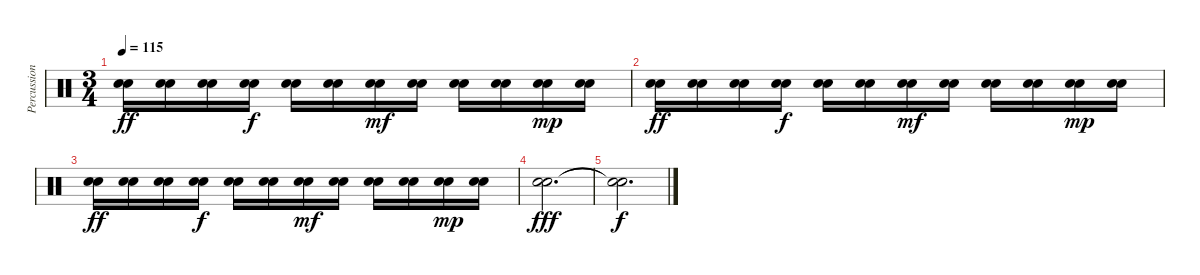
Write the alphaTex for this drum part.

\track ("Percussion 2" "Percussion") {instrument percussion}
\staff {score}
\articulation defaults
\ts (3 4)
\tempo 115
\clef neutral
\ks c
("Electric Snare (hit)" "Electric Snare (hit)").16{dy ff} ("Electric Snare (hit)" "Electric Snare (hit)").16 ("Electric Snare (hit)" "Electric Snare (hit)").16 ("Electric Snare (hit)" "Electric Snare (hit)").16{dy f} ("Electric Snare (hit)" "Electric Snare (hit)").16 ("Electric Snare (hit)" "Electric Snare (hit)").16 ("Electric Snare (hit)" "Electric Snare (hit)").16{dy mf} ("Electric Snare (hit)" "Electric Snare (hit)").16 ("Electric Snare (hit)" "Electric Snare (hit)").16 ("Electric Snare (hit)" "Electric Snare (hit)").16 ("Electric Snare (hit)" "Electric Snare (hit)").16{dy mp} ("Electric Snare (hit)" "Electric Snare (hit)").16 |
("Electric Snare (hit)" "Electric Snare (hit)").16{dy ff} ("Electric Snare (hit)" "Electric Snare (hit)").16 ("Electric Snare (hit)" "Electric Snare (hit)").16 ("Electric Snare (hit)" "Electric Snare (hit)").16{dy f} ("Electric Snare (hit)" "Electric Snare (hit)").16 ("Electric Snare (hit)" "Electric Snare (hit)").16 ("Electric Snare (hit)" "Electric Snare (hit)").16{dy mf} ("Electric Snare (hit)" "Electric Snare (hit)").16 ("Electric Snare (hit)" "Electric Snare (hit)").16 ("Electric Snare (hit)" "Electric Snare (hit)").16 ("Electric Snare (hit)" "Electric Snare (hit)").16{dy mp} ("Electric Snare (hit)" "Electric Snare (hit)").16 |
("Electric Snare (hit)" "Electric Snare (hit)").16{dy ff} ("Electric Snare (hit)" "Electric Snare (hit)").16 ("Electric Snare (hit)" "Electric Snare (hit)").16 ("Electric Snare (hit)" "Electric Snare (hit)").16{dy f} ("Electric Snare (hit)" "Electric Snare (hit)").16 ("Electric Snare (hit)" "Electric Snare (hit)").16 ("Electric Snare (hit)" "Electric Snare (hit)").16{dy mf} ("Electric Snare (hit)" "Electric Snare (hit)").16 ("Electric Snare (hit)" "Electric Snare (hit)").16 ("Electric Snare (hit)" "Electric Snare (hit)").16 ("Electric Snare (hit)" "Electric Snare (hit)").16{dy mp} ("Electric Snare (hit)" "Electric Snare (hit)").16 |
("Electric Snare (hit)" "Electric Snare (hit)").2{d dy fff} |
("Snare (hit)"{t} "Snare (hit)"{t}).2{d dy f}
